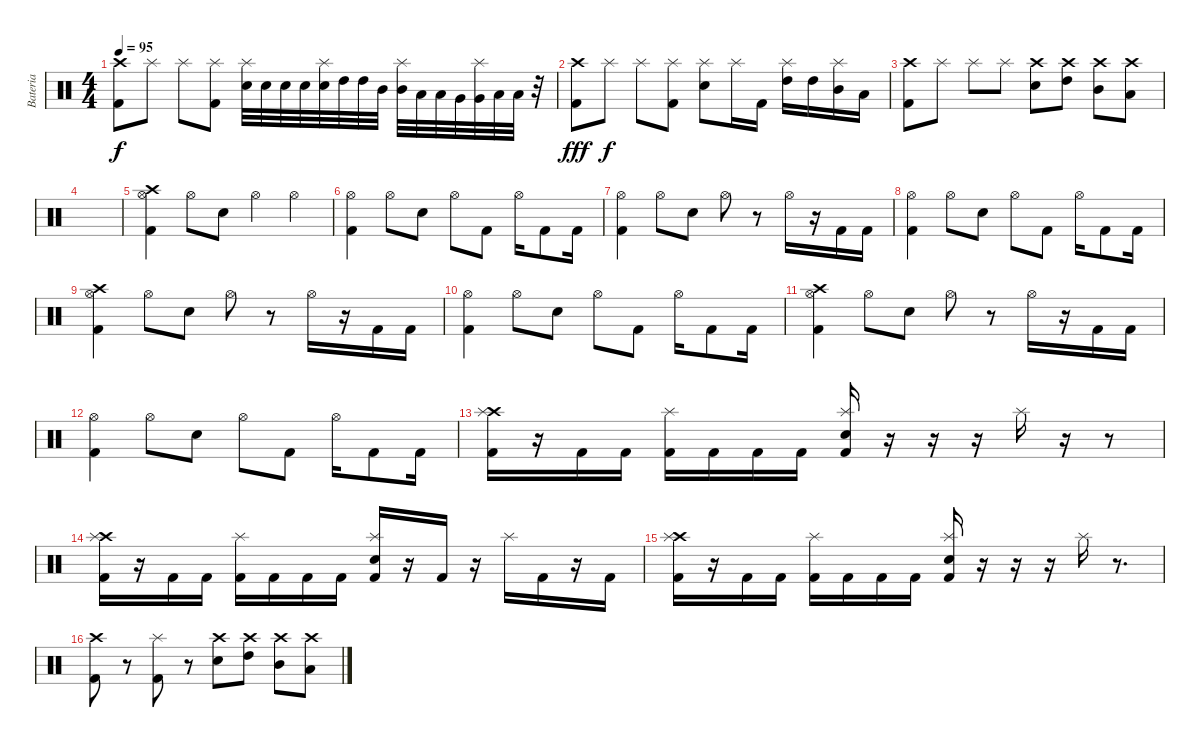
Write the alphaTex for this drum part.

\track ("Bateria" "Bateria") {instrument percussion}
\staff {score}
\articulation defaults
\ts (4 4)
\tempo 95
\clef neutral
\ks c
("Crash high (hit)" "Kick (hit) 2").8{dy f} "Splash (hit)".8 "Splash (hit)".8 ("Splash (hit)" "Kick (hit) 2").8 ("Splash (hit)" "Electric Snare (hit)").32 "Electric Snare (hit)".32 "Electric Snare (hit)".32 "Electric Snare (hit)".32 ("Splash (hit)" "Electric Snare (hit)").32 "High Tom (hit)".32 "High Tom (hit)".32 "Mid Tom (hit)".32 ("Splash (hit)" "Mid Tom (hit)").32 "Low Tom (hit)".32 "Low Tom (hit)".32 "Very Low Tom (hit)".32 ("Splash (hit)" "Very Low Tom (hit)").32 "Low Floor Tom (hit)".32 "Low Floor Tom (hit)".32 r.32 |
("Crash high (hit)" "Kick (hit) 2").8{dy fff} "Splash (hit)".8{dy f} "Splash (hit)".8 ("Splash (hit)" "Kick (hit) 2").8 ("Splash (hit)" "Electric Snare (hit)").8 "Splash (hit)".16 "Kick (hit) 2".16 ("Splash (hit)" "High Tom (hit)").16 "High Tom (hit)".16 ("Splash (hit)" "Mid Tom (hit)").16 "Low Tom (hit)".16 |
("Crash high (hit)" "Kick (hit) 2").8 "Splash (hit)".8 "Splash (hit)".8 "Splash (hit)".8 ("Crash high (hit)" "Electric Snare (hit)").8 ("Crash high (hit)" "High Tom (hit)").8 ("Crash high (hit)" "Mid Tom (hit)").8 ("Crash high (hit)" "Low Tom (hit)").8 |
|
("Hi-Hat (open)" "Crash high (hit)" "Kick (hit) 2").4 "Hi-Hat (open)".8 "Electric Snare (hit)".8 "Hi-Hat (open)".4 "Hi-Hat (open)".4 |
("Hi-Hat (open)" "Kick (hit) 2").4 "Hi-Hat (open)".8 "Electric Snare (hit)".8 "Hi-Hat (open)".8 "Kick (hit) 2".8 "Hi-Hat (open)".16 "Kick (hit) 2".8 "Kick (hit) 2".16 |
("Hi-Hat (open)" "Kick (hit) 2").4 "Hi-Hat (open)".8 "Electric Snare (hit)".8 "Hi-Hat (open)".8 r.8 "Hi-Hat (open)".16 r.16 "Kick (hit) 2".16 "Kick (hit) 2".16 |
("Hi-Hat (open)" "Kick (hit) 2").4 "Hi-Hat (open)".8 "Electric Snare (hit)".8 "Hi-Hat (open)".8 "Kick (hit) 2".8 "Hi-Hat (open)".16 "Kick (hit) 2".8 "Kick (hit) 2".16 |
("Hi-Hat (open)" "Crash high (hit)" "Kick (hit) 2").4 "Hi-Hat (open)".8 "Electric Snare (hit)".8 "Hi-Hat (open)".8 r.8 "Hi-Hat (open)".16 r.16 "Kick (hit) 2".16 "Kick (hit) 2".16 |
("Hi-Hat (open)" "Kick (hit) 2").4 "Hi-Hat (open)".8 "Electric Snare (hit)".8 "Hi-Hat (open)".8 "Kick (hit) 2".8 "Hi-Hat (open)".16 "Kick (hit) 2".8 "Kick (hit) 2".16 |
("Hi-Hat (open)" "Crash high (hit)" "Kick (hit) 2").4 "Hi-Hat (open)".8 "Electric Snare (hit)".8 "Hi-Hat (open)".8 r.8 "Hi-Hat (open)".16 r.16 "Kick (hit) 2".16 "Kick (hit) 2".16 |
("Hi-Hat (open)" "Kick (hit) 2").4 "Hi-Hat (open)".8 "Electric Snare (hit)".8 "Hi-Hat (open)".8 "Kick (hit) 2".8 "Hi-Hat (open)".16 "Kick (hit) 2".8 "Kick (hit) 2".16 |
("Crash high (hit)" "Splash (hit)" "Kick (hit) 2").16 r.16 "Kick (hit) 2".16 "Kick (hit) 2".16 ("Splash (hit)" "Kick (hit) 2").16 "Kick (hit) 2".16 "Kick (hit) 2".16 "Kick (hit) 2".16 ("Splash (hit)" "Electric Snare (hit)" "Kick (hit) 2").16 r.16 r.16 r.16 "Splash (hit)".16 r.16 r.8 |
("Crash high (hit)" "Splash (hit)" "Kick (hit) 2").16 r.16 "Kick (hit) 2".16 "Kick (hit) 2".16 ("Splash (hit)" "Kick (hit) 2").16 "Kick (hit) 2".16 "Kick (hit) 2".16 "Kick (hit) 2".16 ("Splash (hit)" "Electric Snare (hit)" "Kick (hit) 2").16 r.16 "Kick (hit) 2".16 r.16 "Splash (hit)".16 "Kick (hit) 2".16 r.16 "Kick (hit) 2".16 |
("Crash high (hit)" "Splash (hit)" "Kick (hit) 2").16 r.16 "Kick (hit) 2".16 "Kick (hit) 2".16 ("Splash (hit)" "Kick (hit) 2").16 "Kick (hit) 2".16 "Kick (hit) 2".16 "Kick (hit) 2".16 ("Splash (hit)" "Electric Snare (hit)" "Kick (hit) 2").16 r.16 r.16 r.16 "Splash (hit)".16 r.8{d} |
("Crash high (hit)" "Kick (hit) 2").8 r.8 ("Splash (hit)" "Kick (hit) 2").8 r.8 ("Crash high (hit)" "Electric Snare (hit)").8 ("Crash high (hit)" "High Tom (hit)").8 ("Crash high (hit)" "Mid Tom (hit)").8 ("Crash high (hit)" "Low Tom (hit)").8
